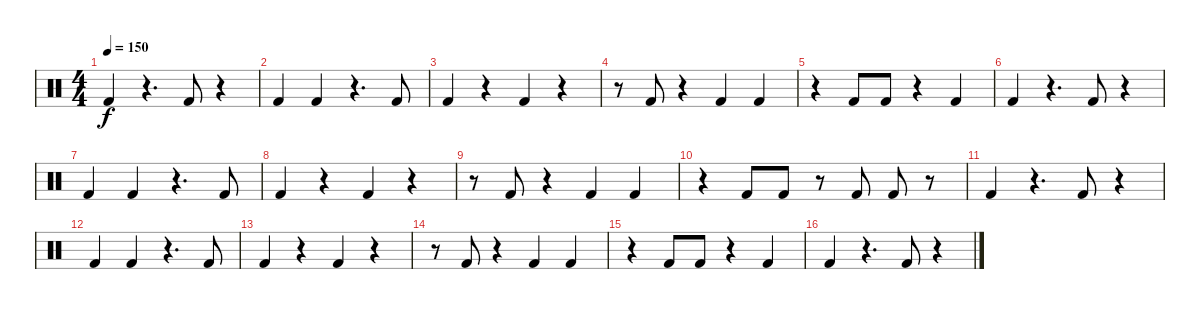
\track "" {instrument percussion}
\staff {score}
\articulation defaults
\ts (4 4)
\tempo 150
\clef neutral
\ks c "Kick (hit) 2".4{dy f}
r.4{d} "Kick (hit) 2".8 r.4 |
"Kick (hit) 2".4 "Kick (hit) 2".4 r.4{d} "Kick (hit) 2".8 |
"Kick (hit) 2".4 r.4 "Kick (hit) 2".4 r.4 |
r.8 "Kick (hit) 2".8 r.4 "Kick (hit) 2".4 "Kick (hit) 2".4 |
r.4 "Kick (hit) 2".8 "Kick (hit) 2".8 r.4 "Kick (hit) 2".4 |
"Kick (hit) 2".4 r.4{d} "Kick (hit) 2".8 r.4 |
"Kick (hit) 2".4 "Kick (hit) 2".4 r.4{d} "Kick (hit) 2".8 |
"Kick (hit) 2".4 r.4 "Kick (hit) 2".4 r.4 |
r.8 "Kick (hit) 2".8 r.4 "Kick (hit) 2".4 "Kick (hit) 2".4 |
r.4 "Kick (hit) 2".8 "Kick (hit) 2".8 r.8 "Kick (hit) 2".8 "Kick (hit) 2".8 r.8 |
"Kick (hit) 2".4 r.4{d} "Kick (hit) 2".8 r.4 |
"Kick (hit) 2".4 "Kick (hit) 2".4 r.4{d} "Kick (hit) 2".8 |
"Kick (hit) 2".4 r.4 "Kick (hit) 2".4 r.4 |
r.8 "Kick (hit) 2".8 r.4 "Kick (hit) 2".4 "Kick (hit) 2".4 |
r.4 "Kick (hit) 2".8 "Kick (hit) 2".8 r.4 "Kick (hit) 2".4 |
"Kick (hit) 2".4 r.4{d} "Kick (hit) 2".8 r.4
